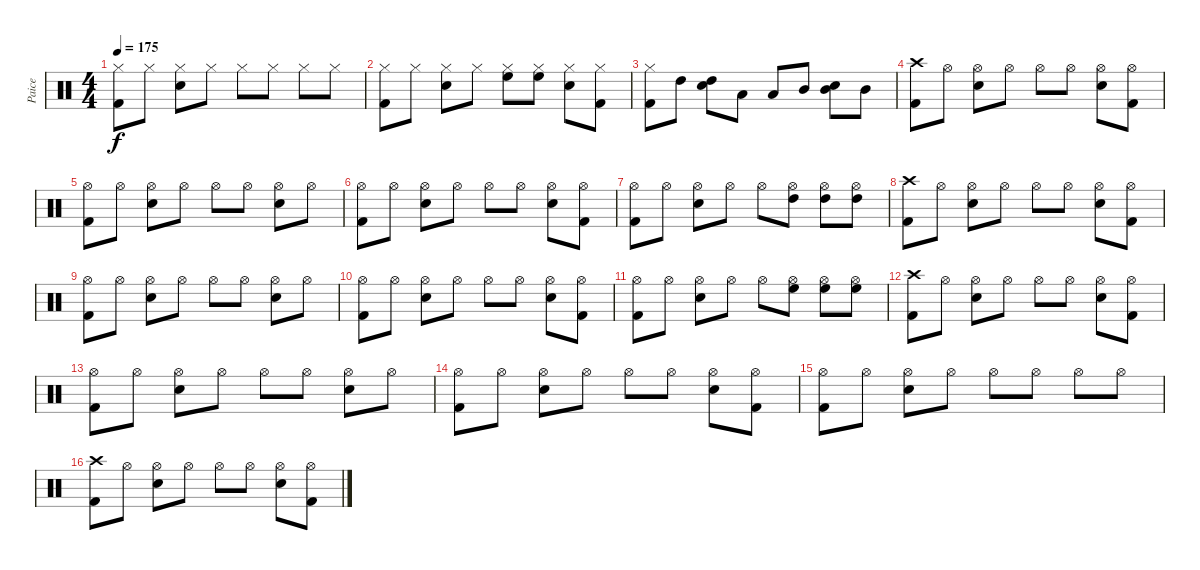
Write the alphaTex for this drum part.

\track ("Paice" "Paice") {instrument percussion}
\staff {score}
\articulation defaults
\ts (4 4)
\tempo 175
\clef neutral
\ks c
("Hi-Hat (closed)" "Kick (hit) 2").8{dy f} "Hi-Hat (closed)".8 ("Hi-Hat (closed)" "Electric Snare (hit)").8 "Hi-Hat (closed)".8 "Hi-Hat (closed)".8 "Hi-Hat (closed)".8 "Hi-Hat (closed)".8 "Hi-Hat (closed)".8 |
("Hi-Hat (closed)" "Kick (hit) 2").8 "Hi-Hat (closed)".8 ("Hi-Hat (closed)" "Electric Snare (hit)").8 "Hi-Hat (closed)".8 ("Hi-Hat (closed)" "High Floor Tom (hit)").8 ("Hi-Hat (closed)" "High Floor Tom (hit)").8 ("Hi-Hat (closed)" "Electric Snare (hit)").8 ("Hi-Hat (closed)" "Kick (hit) 2").8 |
("Hi-Hat (closed)" "Kick (hit) 2").8 "High Tom (hit)".8 ("High Tom (hit)" "Electric Snare (hit)").8 "Low Tom (hit)".8 "Low Tom (hit)".8 "Mid Tom (hit)".8 ("Electric Snare (hit)" "Mid Tom (hit)").8 "Mid Tom (hit)".8 |
("Crash high (hit)" "Kick (hit) 2").8 "Hi-Hat (open)".8 ("Hi-Hat (open)" "Electric Snare (hit)").8 "Hi-Hat (open)".8 "Hi-Hat (open)".8 "Hi-Hat (open)".8 ("Hi-Hat (open)" "Electric Snare (hit)").8 ("Hi-Hat (open)" "Kick (hit) 2").8 |
("Hi-Hat (open)" "Kick (hit) 2").8 "Hi-Hat (open)".8 ("Hi-Hat (open)" "Electric Snare (hit)").8 "Hi-Hat (open)".8 "Hi-Hat (open)".8 "Hi-Hat (open)".8 ("Hi-Hat (open)" "Electric Snare (hit)").8 "Hi-Hat (open)".8 |
("Hi-Hat (open)" "Kick (hit) 2").8 "Hi-Hat (open)".8 ("Hi-Hat (open)" "Electric Snare (hit)").8 "Hi-Hat (open)".8 "Hi-Hat (open)".8 "Hi-Hat (open)".8 ("Hi-Hat (open)" "Electric Snare (hit)").8 ("Hi-Hat (open)" "Kick (hit) 2").8 |
("Hi-Hat (open)" "Kick (hit) 2").8 "Hi-Hat (open)".8 ("Hi-Hat (open)" "Electric Snare (hit)").8 "Hi-Hat (open)".8 "Hi-Hat (open)".8 ("Hi-Hat (open)" "High Tom (hit)").8 ("Hi-Hat (open)" "High Tom (hit)").8 ("Hi-Hat (open)" "High Tom (hit)").8 |
("Crash high (hit)" "Kick (hit) 2").8 "Hi-Hat (open)".8 ("Hi-Hat (open)" "Electric Snare (hit)").8 "Hi-Hat (open)".8 "Hi-Hat (open)".8 "Hi-Hat (open)".8 ("Hi-Hat (open)" "Electric Snare (hit)").8 ("Hi-Hat (open)" "Kick (hit) 2").8 |
("Hi-Hat (open)" "Kick (hit) 2").8 "Hi-Hat (open)".8 ("Hi-Hat (open)" "Electric Snare (hit)").8 "Hi-Hat (open)".8 "Hi-Hat (open)".8 "Hi-Hat (open)".8 ("Hi-Hat (open)" "Electric Snare (hit)").8 "Hi-Hat (open)".8 |
("Hi-Hat (open)" "Kick (hit) 2").8 "Hi-Hat (open)".8 ("Hi-Hat (open)" "Electric Snare (hit)").8 "Hi-Hat (open)".8 "Hi-Hat (open)".8 "Hi-Hat (open)".8 ("Hi-Hat (open)" "Electric Snare (hit)").8 ("Hi-Hat (open)" "Kick (hit) 2").8 |
("Hi-Hat (open)" "Kick (hit) 2").8 "Hi-Hat (open)".8 ("Hi-Hat (open)" "Electric Snare (hit)").8 "Hi-Hat (open)".8 "Hi-Hat (open)".8 ("Hi-Hat (open)" "High Floor Tom (hit)").8 ("Hi-Hat (open)" "High Floor Tom (hit)").8 ("Hi-Hat (open)" "High Floor Tom (hit)").8 |
("Crash high (hit)" "Kick (hit) 2").8 "Hi-Hat (open)".8 ("Hi-Hat (open)" "Electric Snare (hit)").8 "Hi-Hat (open)".8 "Hi-Hat (open)".8 "Hi-Hat (open)".8 ("Hi-Hat (open)" "Electric Snare (hit)").8 ("Hi-Hat (open)" "Kick (hit) 2").8 |
("Hi-Hat (open)" "Kick (hit) 2").8 "Hi-Hat (open)".8 ("Hi-Hat (open)" "Electric Snare (hit)").8 "Hi-Hat (open)".8 "Hi-Hat (open)".8 "Hi-Hat (open)".8 ("Hi-Hat (open)" "Electric Snare (hit)").8 "Hi-Hat (open)".8 |
("Hi-Hat (open)" "Kick (hit) 2").8 "Hi-Hat (open)".8 ("Hi-Hat (open)" "Electric Snare (hit)").8 "Hi-Hat (open)".8 "Hi-Hat (open)".8 "Hi-Hat (open)".8 ("Hi-Hat (open)" "Electric Snare (hit)").8 ("Hi-Hat (open)" "Kick (hit) 2").8 |
("Hi-Hat (open)" "Kick (hit) 2").8 "Hi-Hat (open)".8 ("Hi-Hat (open)" "Electric Snare (hit)").8 "Hi-Hat (open)".8 "Hi-Hat (open)".8 "Hi-Hat (open)".8 "Hi-Hat (open)".8 "Hi-Hat (open)".8 |
("Crash high (hit)" "Kick (hit) 2").8 "Hi-Hat (open)".8 ("Hi-Hat (open)" "Electric Snare (hit)").8 "Hi-Hat (open)".8 "Hi-Hat (open)".8 "Hi-Hat (open)".8 ("Hi-Hat (open)" "Electric Snare (hit)").8 ("Hi-Hat (open)" "Kick (hit) 2").8
